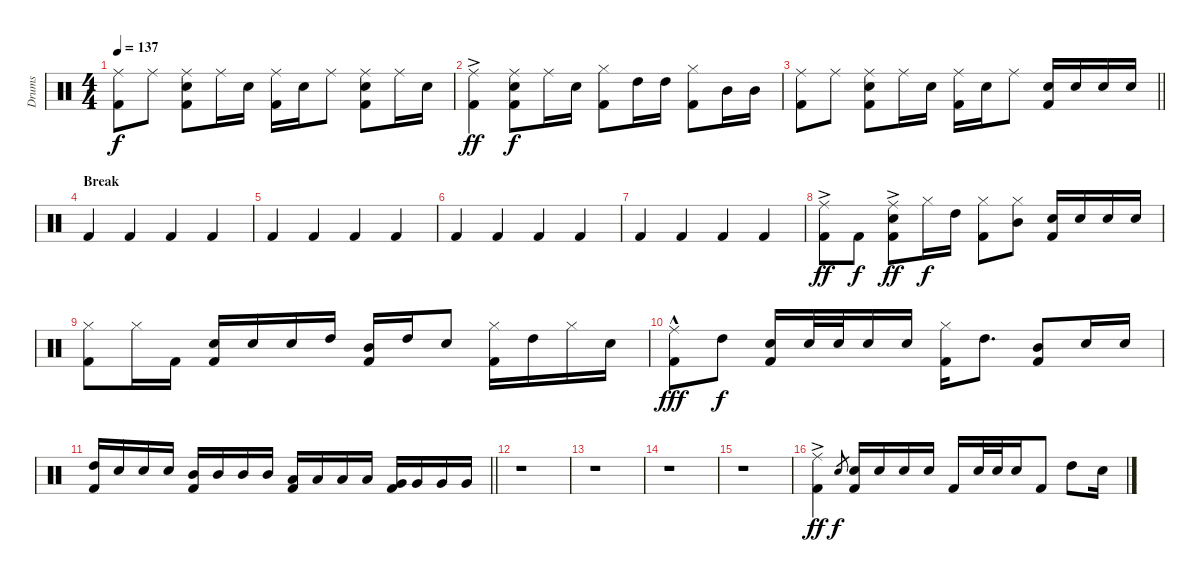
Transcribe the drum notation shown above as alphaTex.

\track ("Drums" "Drums") {instrument percussion}
\staff {score}
\articulation defaults
\ts (4 4)
\tempo 137
\clef neutral
\ks c
("Ride (middle)" "Kick (hit) 2").8{dy f} "Ride (middle)".8 ("Ride (middle)" "Electric Snare (hit)" "Kick (hit) 2").8 "Ride (middle)".16 "Electric Snare (hit)".16 ("Ride (middle)" "Kick (hit) 2").16 "Electric Snare (hit)".16 "Ride (middle)".8 ("Ride (middle)" "Electric Snare (hit)" "Kick (hit) 2").8 "Ride (middle)".16 "Electric Snare (hit)".16 |
("Ride (middle)"{ac} "Kick (hit) 2").4{dy ff} ("Ride (middle)" "Electric Snare (hit)" "Kick (hit) 2").8{dy f} "Ride (middle)".16 "Electric Snare (hit)".16 ("Hi-Hat (closed)" "Kick (hit) 2").8 "High Tom (hit)".16 "High Tom (hit)".16 ("Hi-Hat (closed)" "Kick (hit) 2").8 "Mid Tom (hit)".16 "Mid Tom (hit)".16 |
\barLineRight lightlight
("Ride (middle)" "Kick (hit) 2").8 "Ride (middle)".8 ("Ride (middle)" "Electric Snare (hit)" "Kick (hit) 2").8 "Ride (middle)".16 "Electric Snare (hit)".16 ("Ride (middle)" "Kick (hit) 2").16 "Electric Snare (hit)".16 "Ride (middle)".8 ("Electric Snare (hit)" "Kick (hit) 2").16 "Electric Snare (hit)".16 "Electric Snare (hit)".16 "Electric Snare (hit)".16 |
\section ("" "Break")
"Kick (hit) 2".4 "Kick (hit) 2".4 "Kick (hit) 2".4 "Kick (hit) 2".4 |
"Kick (hit) 2".4 "Kick (hit) 2".4 "Kick (hit) 2".4 "Kick (hit) 2".4 |
"Kick (hit) 2".4 "Kick (hit) 2".4 "Kick (hit) 2".4 "Kick (hit) 2".4 |
"Kick (hit) 2".4 "Kick (hit) 2".4 "Kick (hit) 2".4 "Kick (hit) 2".4 |
("Ride (middle)"{ac} "Kick (hit) 2").8{dy ff} "Kick (hit) 2".8{dy f} ("Ride (middle)"{ac} "Electric Snare (hit)" "Kick (hit) 2").8{dy ff} "Hi-Hat (closed)".16{dy f} "High Tom (hit)".16 ("Hi-Hat (closed)" "Kick (hit) 2").8 ("Hi-Hat (closed)" "Mid Tom (hit)").8 ("Electric Snare (hit)" "Kick (hit) 2").16 "Electric Snare (hit)".16 "Electric Snare (hit)".16 "Electric Snare (hit)".16 |
("Hi-Hat (closed)" "Kick (hit) 2").8 "Hi-Hat (closed)".16 "Kick (hit) 2".16 ("Electric Snare (hit)" "Kick (hit) 2").16 "Electric Snare (hit)".16 "Electric Snare (hit)".16 "High Tom (hit)".16 ("Mid Tom (hit)" "Kick (hit) 2").16 "High Tom (hit)".16 "Electric Snare (hit)".8 ("Hi-Hat (closed)" "Kick (hit) 2").16 "High Tom (hit)".16 "Hi-Hat (closed)".16 "Electric Snare (hit)".16 |
("Ride (middle)"{hac} "Kick (hit) 2").8{dy fff} "High Tom (hit)".8{dy f} ("Electric Snare (hit)" "Kick (hit) 2").16 "Electric Snare (hit)".32 "Electric Snare (hit)".32 "Electric Snare (hit)".16 "Electric Snare (hit)".16 ("Hi-Hat (closed)" "Kick (hit) 2").16 "High Tom (hit)".8{d} ("Mid Tom (hit)" "Kick (hit) 2").8 "Electric Snare (hit)".16 "Electric Snare (hit)".16 |
\barLineRight lightlight
("High Tom (hit)" "Kick (hit) 2").16 "Electric Snare (hit)".16 "Electric Snare (hit)".16 "Electric Snare (hit)".16 ("Mid Tom (hit)" "Kick (hit) 2").16 "Mid Tom (hit)".16 "Mid Tom (hit)".16 "Mid Tom (hit)".16 ("Low Tom (hit)" "Kick (hit) 2").16 "Low Tom (hit)".16 "Low Tom (hit)".16 "Low Tom (hit)".16 ("Very Low Tom (hit)" "Kick (hit) 2").16 "Very Low Tom (hit)".16 "Very Low Tom (hit)".16 "Very Low Tom (hit)".16 |
\section ("" "")
r.1 |
r.1 |
r.1 |
r.1 |
("Ride (middle)"{ac} "Kick (hit) 2").4{dy ff} "Electric Snare (hit)".8{gr dy f} ("Electric Snare (hit)" "Kick (hit) 2").16 "Electric Snare (hit)".16 "Electric Snare (hit)".16 "Electric Snare (hit)".16 "Kick (hit) 2".16 "Electric Snare (hit)".32 "Electric Snare (hit)".32 "Electric Snare (hit)".16 "Kick (hit) 2".8 "High Tom (hit)".8 "Electric Snare (hit)".16
